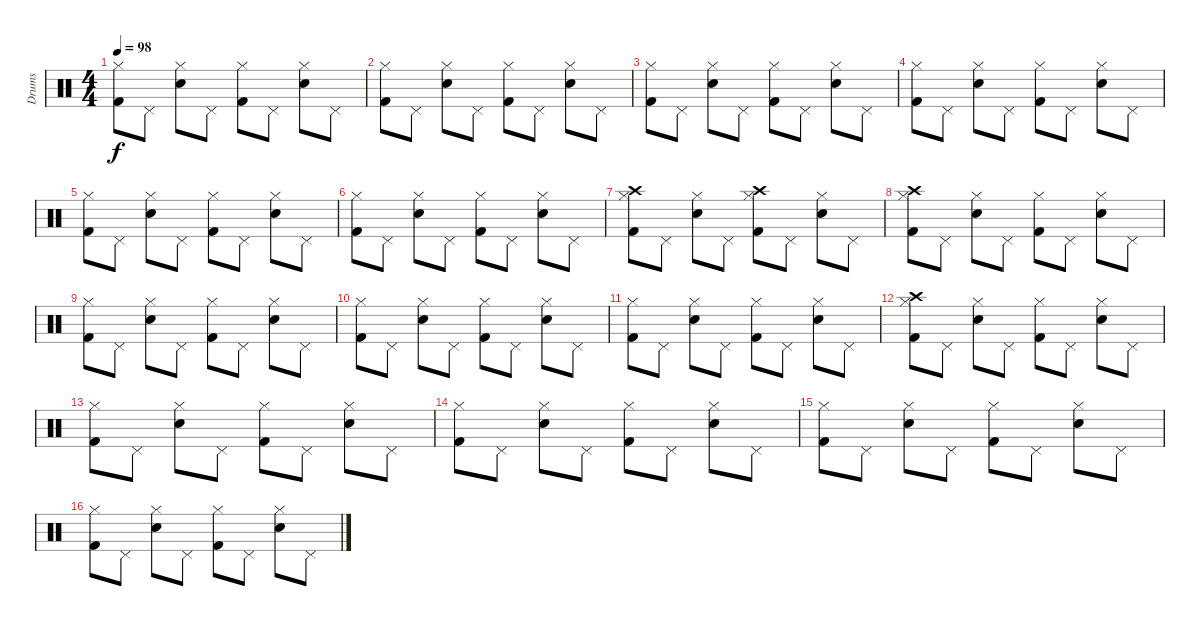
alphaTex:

\track ("Drums" "Drums") {instrument percussion}
\staff {score}
\articulation defaults
\ts (4 4)
\tempo 98
\clef neutral
\ks c
("Hi-Hat (closed)" "Kick (hit) 2").8{dy f} "Pedal Hi-Hat (hit)".8 ("Hi-Hat (closed)" "Snare (hit) 2").8 "Pedal Hi-Hat (hit)".8 ("Hi-Hat (closed)" "Kick (hit) 2").8 "Pedal Hi-Hat (hit)".8 ("Hi-Hat (closed)" "Snare (hit) 2").8 "Pedal Hi-Hat (hit)".8 |
("Hi-Hat (closed)" "Kick (hit) 2").8 "Pedal Hi-Hat (hit)".8 ("Hi-Hat (closed)" "Snare (hit) 2").8 "Pedal Hi-Hat (hit)".8 ("Hi-Hat (closed)" "Kick (hit) 2").8 "Pedal Hi-Hat (hit)".8 ("Hi-Hat (closed)" "Snare (hit) 2").8 "Pedal Hi-Hat (hit)".8 |
("Hi-Hat (closed)" "Kick (hit) 2").8 "Pedal Hi-Hat (hit)".8 ("Hi-Hat (closed)" "Snare (hit) 2").8 "Pedal Hi-Hat (hit)".8 ("Hi-Hat (closed)" "Kick (hit) 2").8 "Pedal Hi-Hat (hit)".8 ("Hi-Hat (closed)" "Snare (hit) 2").8 "Pedal Hi-Hat (hit)".8 |
("Hi-Hat (closed)" "Kick (hit) 2").8 "Pedal Hi-Hat (hit)".8 ("Hi-Hat (closed)" "Snare (hit) 2").8 "Pedal Hi-Hat (hit)".8 ("Hi-Hat (closed)" "Kick (hit) 2").8 "Pedal Hi-Hat (hit)".8 ("Hi-Hat (closed)" "Snare (hit) 2").8 "Pedal Hi-Hat (hit)".8 |
("Hi-Hat (closed)" "Kick (hit) 2").8 "Pedal Hi-Hat (hit)".8 ("Hi-Hat (closed)" "Snare (hit) 2").8 "Pedal Hi-Hat (hit)".8 ("Hi-Hat (closed)" "Kick (hit) 2").8 "Pedal Hi-Hat (hit)".8 ("Hi-Hat (closed)" "Snare (hit) 2").8 "Pedal Hi-Hat (hit)".8 |
("Hi-Hat (closed)" "Kick (hit) 2").8 "Pedal Hi-Hat (hit)".8 ("Hi-Hat (closed)" "Snare (hit) 2").8 "Pedal Hi-Hat (hit)".8 ("Hi-Hat (closed)" "Kick (hit) 2").8 "Pedal Hi-Hat (hit)".8 ("Hi-Hat (closed)" "Snare (hit) 2").8 "Pedal Hi-Hat (hit)".8 |
("Hi-Hat (closed)" "Kick (hit) 2" "Crash high (hit)").8 "Pedal Hi-Hat (hit)".8 ("Hi-Hat (closed)" "Snare (hit) 2").8 "Pedal Hi-Hat (hit)".8 ("Hi-Hat (closed)" "Kick (hit) 2" "Crash high (hit)").8 "Pedal Hi-Hat (hit)".8 ("Hi-Hat (closed)" "Snare (hit) 2").8 "Pedal Hi-Hat (hit)".8 |
("Hi-Hat (closed)" "Kick (hit) 2" "Crash high (hit)").8 "Pedal Hi-Hat (hit)".8 ("Hi-Hat (closed)" "Snare (hit) 2").8 "Pedal Hi-Hat (hit)".8 ("Hi-Hat (closed)" "Kick (hit) 2").8 "Pedal Hi-Hat (hit)".8 ("Hi-Hat (closed)" "Snare (hit) 2").8 "Pedal Hi-Hat (hit)".8 |
("Hi-Hat (closed)" "Kick (hit) 2").8 "Pedal Hi-Hat (hit)".8 ("Hi-Hat (closed)" "Snare (hit) 2").8 "Pedal Hi-Hat (hit)".8 ("Hi-Hat (closed)" "Kick (hit) 2").8 "Pedal Hi-Hat (hit)".8 ("Hi-Hat (closed)" "Snare (hit) 2").8 "Pedal Hi-Hat (hit)".8 |
("Hi-Hat (closed)" "Kick (hit) 2").8 "Pedal Hi-Hat (hit)".8 ("Hi-Hat (closed)" "Snare (hit) 2").8 "Pedal Hi-Hat (hit)".8 ("Hi-Hat (closed)" "Kick (hit) 2").8 "Pedal Hi-Hat (hit)".8 ("Hi-Hat (closed)" "Snare (hit) 2").8 "Pedal Hi-Hat (hit)".8 |
("Hi-Hat (closed)" "Kick (hit) 2").8 "Pedal Hi-Hat (hit)".8 ("Hi-Hat (closed)" "Snare (hit) 2").8 "Pedal Hi-Hat (hit)".8 ("Hi-Hat (closed)" "Kick (hit) 2").8 "Pedal Hi-Hat (hit)".8 ("Hi-Hat (closed)" "Snare (hit) 2").8 "Pedal Hi-Hat (hit)".8 |
("Hi-Hat (closed)" "Kick (hit) 2" "Crash high (hit)").8 "Pedal Hi-Hat (hit)".8 ("Hi-Hat (closed)" "Snare (hit) 2").8 "Pedal Hi-Hat (hit)".8 ("Hi-Hat (closed)" "Kick (hit) 2").8 "Pedal Hi-Hat (hit)".8 ("Hi-Hat (closed)" "Snare (hit) 2").8 "Pedal Hi-Hat (hit)".8 |
("Hi-Hat (closed)" "Kick (hit) 2").8 "Pedal Hi-Hat (hit)".8 ("Hi-Hat (closed)" "Snare (hit) 2").8 "Pedal Hi-Hat (hit)".8 ("Hi-Hat (closed)" "Kick (hit) 2").8 "Pedal Hi-Hat (hit)".8 ("Hi-Hat (closed)" "Snare (hit) 2").8 "Pedal Hi-Hat (hit)".8 |
("Hi-Hat (closed)" "Kick (hit) 2").8 "Pedal Hi-Hat (hit)".8 ("Hi-Hat (closed)" "Snare (hit) 2").8 "Pedal Hi-Hat (hit)".8 ("Hi-Hat (closed)" "Kick (hit) 2").8 "Pedal Hi-Hat (hit)".8 ("Hi-Hat (closed)" "Snare (hit) 2").8 "Pedal Hi-Hat (hit)".8 |
("Hi-Hat (closed)" "Kick (hit) 2").8 "Pedal Hi-Hat (hit)".8 ("Hi-Hat (closed)" "Snare (hit) 2").8 "Pedal Hi-Hat (hit)".8 ("Hi-Hat (closed)" "Kick (hit) 2").8 "Pedal Hi-Hat (hit)".8 ("Hi-Hat (closed)" "Snare (hit) 2").8 "Pedal Hi-Hat (hit)".8 |
("Hi-Hat (closed)" "Kick (hit) 2").8 "Pedal Hi-Hat (hit)".8 ("Hi-Hat (closed)" "Snare (hit) 2").8 "Pedal Hi-Hat (hit)".8 ("Hi-Hat (closed)" "Kick (hit) 2").8 "Pedal Hi-Hat (hit)".8 ("Hi-Hat (closed)" "Snare (hit) 2").8 "Pedal Hi-Hat (hit)".8
